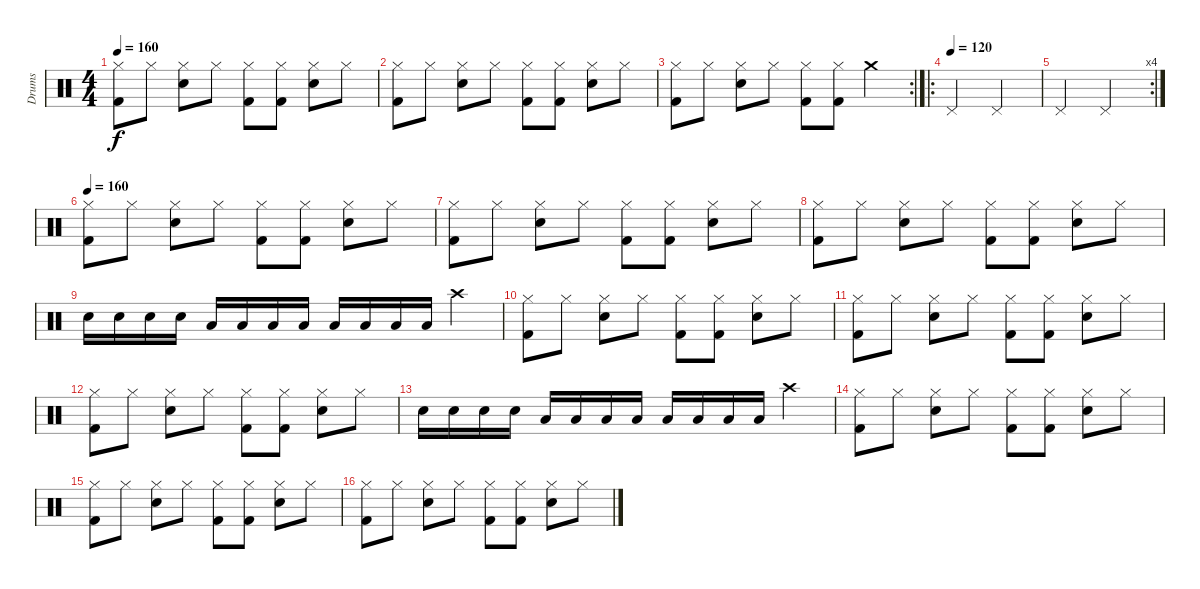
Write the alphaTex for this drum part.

\track ("Drums" "Drums") {instrument percussion}
\staff {score}
\articulation defaults
\ts (4 4)
\tempo 160
\clef neutral
\ks c
("Kick (hit) 2" "Hi-Hat (closed)").8{dy f} "Hi-Hat (closed)".8 ("Snare (hit) 2" "Hi-Hat (closed)").8 "Hi-Hat (closed)".8 ("Kick (hit) 2" "Hi-Hat (closed)").8 ("Kick (hit) 2" "Hi-Hat (closed)").8 ("Snare (hit) 2" "Hi-Hat (closed)").8 "Hi-Hat (closed)".8 |
("Kick (hit) 2" "Hi-Hat (closed)").8 "Hi-Hat (closed)".8 ("Snare (hit) 2" "Hi-Hat (closed)").8 "Hi-Hat (closed)".8 ("Kick (hit) 2" "Hi-Hat (closed)").8 ("Kick (hit) 2" "Hi-Hat (closed)").8 ("Snare (hit) 2" "Hi-Hat (closed)").8 "Hi-Hat (closed)".8 |
\rc 2
("Kick (hit) 2" "Hi-Hat (closed)").8 "Hi-Hat (closed)".8 ("Snare (hit) 2" "Hi-Hat (closed)").8 "Hi-Hat (closed)".8 ("Kick (hit) 2" "Hi-Hat (closed)").8 ("Kick (hit) 2" "Hi-Hat (closed)").8 "Crash medium (hit)".4 |
\ro
\tempo (120)
"Pedal Hi-Hat (hit)".2 "Pedal Hi-Hat (hit)".2 |
\rc 4 "Pedal Hi-Hat (hit)".2 "Pedal Hi-Hat (hit)".2
|
\tempo 160
("Kick (hit) 2" "Hi-Hat (closed)").8 "Hi-Hat (closed)".8 ("Snare (hit) 2" "Hi-Hat (closed)").8 "Hi-Hat (closed)".8 ("Kick (hit) 2" "Hi-Hat (closed)").8 ("Kick (hit) 2" "Hi-Hat (closed)").8 ("Snare (hit) 2" "Hi-Hat (closed)").8 "Hi-Hat (closed)".8 |
("Kick (hit) 2" "Hi-Hat (closed)").8 "Hi-Hat (closed)".8 ("Snare (hit) 2" "Hi-Hat (closed)").8 "Hi-Hat (closed)".8 ("Kick (hit) 2" "Hi-Hat (closed)").8 ("Kick (hit) 2" "Hi-Hat (closed)").8 ("Snare (hit) 2" "Hi-Hat (closed)").8 "Hi-Hat (closed)".8 |
("Kick (hit) 2" "Hi-Hat (closed)").8 "Hi-Hat (closed)".8 ("Snare (hit) 2" "Hi-Hat (closed)").8 "Hi-Hat (closed)".8 ("Kick (hit) 2" "Hi-Hat (closed)").8 ("Kick (hit) 2" "Hi-Hat (closed)").8 ("Snare (hit) 2" "Hi-Hat (closed)").8 "Hi-Hat (closed)".8 |
"Snare (hit) 2".16 "Snare (hit) 2".16 "Snare (hit) 2".16 "Snare (hit) 2".16 "Low Tom (hit)".16 "Low Tom (hit)".16 "Low Tom (hit)".16 "Low Tom (hit)".16 "Low Floor Tom (hit)".16 "Low Floor Tom (hit)".16 "Low Floor Tom (hit)".16 "Low Floor Tom (hit)".16 "Crash high (hit)".4 |
("Kick (hit) 2" "Hi-Hat (closed)").8 "Hi-Hat (closed)".8 ("Snare (hit) 2" "Hi-Hat (closed)").8 "Hi-Hat (closed)".8 ("Kick (hit) 2" "Hi-Hat (closed)").8 ("Kick (hit) 2" "Hi-Hat (closed)").8 ("Snare (hit) 2" "Hi-Hat (closed)").8 "Hi-Hat (closed)".8 |
("Kick (hit) 2" "Hi-Hat (closed)").8 "Hi-Hat (closed)".8 ("Snare (hit) 2" "Hi-Hat (closed)").8 "Hi-Hat (closed)".8 ("Kick (hit) 2" "Hi-Hat (closed)").8 ("Kick (hit) 2" "Hi-Hat (closed)").8 ("Snare (hit) 2" "Hi-Hat (closed)").8 "Hi-Hat (closed)".8 |
("Kick (hit) 2" "Hi-Hat (closed)").8 "Hi-Hat (closed)".8 ("Snare (hit) 2" "Hi-Hat (closed)").8 "Hi-Hat (closed)".8 ("Kick (hit) 2" "Hi-Hat (closed)").8 ("Kick (hit) 2" "Hi-Hat (closed)").8 ("Snare (hit) 2" "Hi-Hat (closed)").8 "Hi-Hat (closed)".8 |
"Snare (hit) 2".16 "Snare (hit) 2".16 "Snare (hit) 2".16 "Snare (hit) 2".16 "Low Tom (hit)".16 "Low Tom (hit)".16 "Low Tom (hit)".16 "Low Tom (hit)".16 "Low Floor Tom (hit)".16 "Low Floor Tom (hit)".16 "Low Floor Tom (hit)".16 "Low Floor Tom (hit)".16 "Crash high (hit)".4 |
("Kick (hit) 2" "Hi-Hat (closed)").8 "Hi-Hat (closed)".8 ("Snare (hit) 2" "Hi-Hat (closed)").8 "Hi-Hat (closed)".8 ("Kick (hit) 2" "Hi-Hat (closed)").8 ("Kick (hit) 2" "Hi-Hat (closed)").8 ("Snare (hit) 2" "Hi-Hat (closed)").8 "Hi-Hat (closed)".8 |
("Kick (hit) 2" "Hi-Hat (closed)").8 "Hi-Hat (closed)".8 ("Snare (hit) 2" "Hi-Hat (closed)").8 "Hi-Hat (closed)".8 ("Kick (hit) 2" "Hi-Hat (closed)").8 ("Kick (hit) 2" "Hi-Hat (closed)").8 ("Snare (hit) 2" "Hi-Hat (closed)").8 "Hi-Hat (closed)".8 |
("Kick (hit) 2" "Hi-Hat (closed)").8 "Hi-Hat (closed)".8 ("Snare (hit) 2" "Hi-Hat (closed)").8 "Hi-Hat (closed)".8 ("Kick (hit) 2" "Hi-Hat (closed)").8 ("Kick (hit) 2" "Hi-Hat (closed)").8 ("Snare (hit) 2" "Hi-Hat (closed)").8 "Hi-Hat (closed)".8
